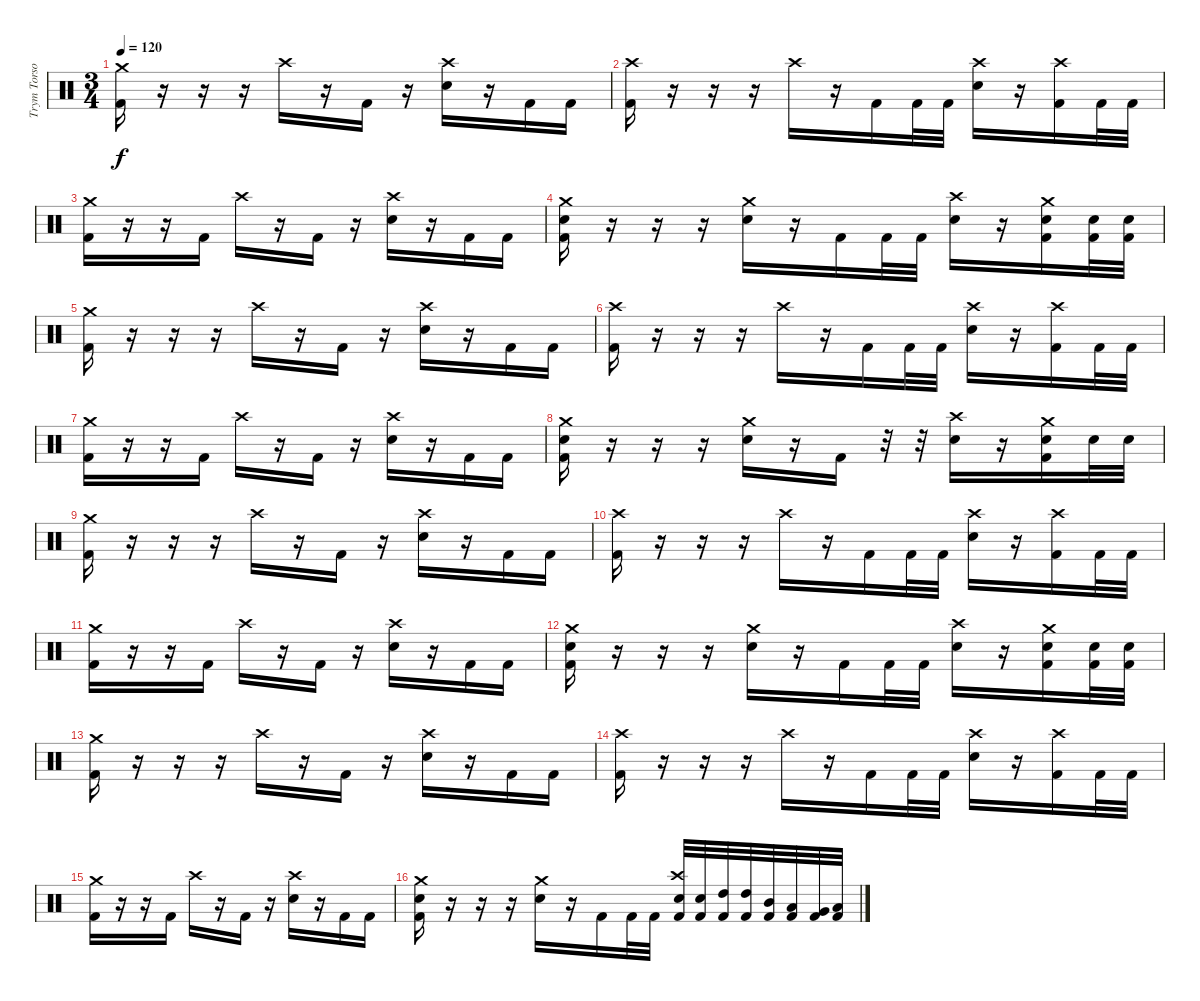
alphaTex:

\track ("Trym Torson" "Trym Torso") {instrument percussion}
\staff {score}
\articulation defaults
\ts (3 4)
\tempo 120
\clef neutral
\ks c
("Crash medium (hit)" "Kick (hit) 2").16{dy f} r.16 r.16 r.16 "Crash high (hit)".16 r.16 "Kick (hit) 2".16 r.16 ("Crash high (hit)" "Snare (hit) 2").16 r.16 "Kick (hit) 2".16 "Kick (hit) 2".16 |
("Crash high (hit)" "Kick (hit) 2").16 r.16 r.16 r.16 "Crash high (hit)".16 r.16 "Kick (hit) 2".16 "Kick (hit) 2".32 "Kick (hit) 2".32 ("Crash high (hit)" "Snare (hit) 2").16 r.16 ("Crash high (hit)" "Kick (hit) 2").16 "Kick (hit) 2".32 "Kick (hit) 2".32 |
("Crash medium (hit)" "Kick (hit) 2").16 r.16 r.16 "Kick (hit) 2".16 "Crash high (hit)".16 r.16 "Kick (hit) 2".16 r.16 ("Crash high (hit)" "Snare (hit) 2").16 r.16 "Kick (hit) 2".16 "Kick (hit) 2".16 |
("Crash medium (hit)" "Snare (hit) 2" "Kick (hit) 2").16 r.16 r.16 r.16 ("Crash medium (hit)" "Snare (hit) 2").16 r.16 "Kick (hit) 2".16 "Kick (hit) 2".32 "Kick (hit) 2".32 ("Crash high (hit)" "Snare (hit) 2").16 r.16 ("Crash medium (hit)" "Snare (hit) 2" "Kick (hit) 2").16 ("Snare (hit) 2" "Kick (hit) 2").32 ("Snare (hit) 2" "Kick (hit) 2").32 |
("Crash medium (hit)" "Kick (hit) 2").16 r.16 r.16 r.16 "Crash high (hit)".16 r.16 "Kick (hit) 2".16 r.16 ("Crash high (hit)" "Snare (hit) 2").16 r.16 "Kick (hit) 2".16 "Kick (hit) 2".16 |
("Crash high (hit)" "Kick (hit) 2").16 r.16 r.16 r.16 "Crash high (hit)".16 r.16 "Kick (hit) 2".16 "Kick (hit) 2".32 "Kick (hit) 2".32 ("Crash high (hit)" "Snare (hit) 2").16 r.16 ("Crash high (hit)" "Kick (hit) 2").16 "Kick (hit) 2".32 "Kick (hit) 2".32 |
("Crash medium (hit)" "Kick (hit) 2").16 r.16 r.16 "Kick (hit) 2".16 "Crash high (hit)".16 r.16 "Kick (hit) 2".16 r.16 ("Crash high (hit)" "Snare (hit) 2").16 r.16 "Kick (hit) 2".16 "Kick (hit) 2".16 |
("Crash medium (hit)" "Snare (hit) 2" "Kick (hit) 2").16 r.16 r.16 r.16 ("Crash medium (hit)" "Snare (hit) 2").16 r.16 "Kick (hit) 2".16 r.32 r.32 ("Crash high (hit)" "Snare (hit) 2").16 r.16 ("Crash medium (hit)" "Snare (hit) 2" "Kick (hit) 2").16 "Snare (hit) 2".32 "Snare (hit) 2".32 |
("Crash medium (hit)" "Kick (hit) 2").16 r.16 r.16 r.16 "Crash high (hit)".16 r.16 "Kick (hit) 2".16 r.16 ("Crash high (hit)" "Snare (hit) 2").16 r.16 "Kick (hit) 2".16 "Kick (hit) 2".16 |
("Crash high (hit)" "Kick (hit) 2").16 r.16 r.16 r.16 "Crash high (hit)".16 r.16 "Kick (hit) 2".16 "Kick (hit) 2".32 "Kick (hit) 2".32 ("Crash high (hit)" "Snare (hit) 2").16 r.16 ("Crash high (hit)" "Kick (hit) 2").16 "Kick (hit) 2".32 "Kick (hit) 2".32 |
("Crash medium (hit)" "Kick (hit) 2").16 r.16 r.16 "Kick (hit) 2".16 "Crash high (hit)".16 r.16 "Kick (hit) 2".16 r.16 ("Crash high (hit)" "Snare (hit) 2").16 r.16 "Kick (hit) 2".16 "Kick (hit) 2".16 |
("Crash medium (hit)" "Snare (hit) 2" "Kick (hit) 2").16 r.16 r.16 r.16 ("Crash medium (hit)" "Snare (hit) 2").16 r.16 "Kick (hit) 2".16 "Kick (hit) 2".32 "Kick (hit) 2".32 ("Crash high (hit)" "Snare (hit) 2").16 r.16 ("Crash medium (hit)" "Snare (hit) 2" "Kick (hit) 2").16 ("Snare (hit) 2" "Kick (hit) 2").32 ("Snare (hit) 2" "Kick (hit) 2").32 |
("Crash medium (hit)" "Kick (hit) 2").16 r.16 r.16 r.16 "Crash high (hit)".16 r.16 "Kick (hit) 2".16 r.16 ("Crash high (hit)" "Snare (hit) 2").16 r.16 "Kick (hit) 2".16 "Kick (hit) 2".16 |
("Crash high (hit)" "Kick (hit) 2").16 r.16 r.16 r.16 "Crash high (hit)".16 r.16 "Kick (hit) 2".16 "Kick (hit) 2".32 "Kick (hit) 2".32 ("Crash high (hit)" "Snare (hit) 2").16 r.16 ("Crash high (hit)" "Kick (hit) 2").16 "Kick (hit) 2".32 "Kick (hit) 2".32 |
("Crash medium (hit)" "Kick (hit) 2").16 r.16 r.16 "Kick (hit) 2".16 "Crash high (hit)".16 r.16 "Kick (hit) 2".16 r.16 ("Crash high (hit)" "Snare (hit) 2").16 r.16 "Kick (hit) 2".16 "Kick (hit) 2".16 |
("Crash medium (hit)" "Snare (hit) 2" "Kick (hit) 2").16 r.16 r.16 r.16 ("Crash medium (hit)" "Snare (hit) 2").16 r.16 "Kick (hit) 2".16 "Kick (hit) 2".32 "Kick (hit) 2".32 ("Crash high (hit)" "Snare (hit) 2" "Kick (hit) 2").32 ("Snare (hit) 2" "Kick (hit) 2").32 ("High Tom (hit)" "Kick (hit) 2").32 ("High Tom (hit)" "Kick (hit) 2").32 ("Mid Tom (hit)" "Kick (hit) 2").32 ("Low Tom (hit)" "Kick (hit) 2").32 ("Very Low Tom (hit)" "Kick (hit) 2").32 ("Low Floor Tom (hit)" "Kick (hit) 2").32
